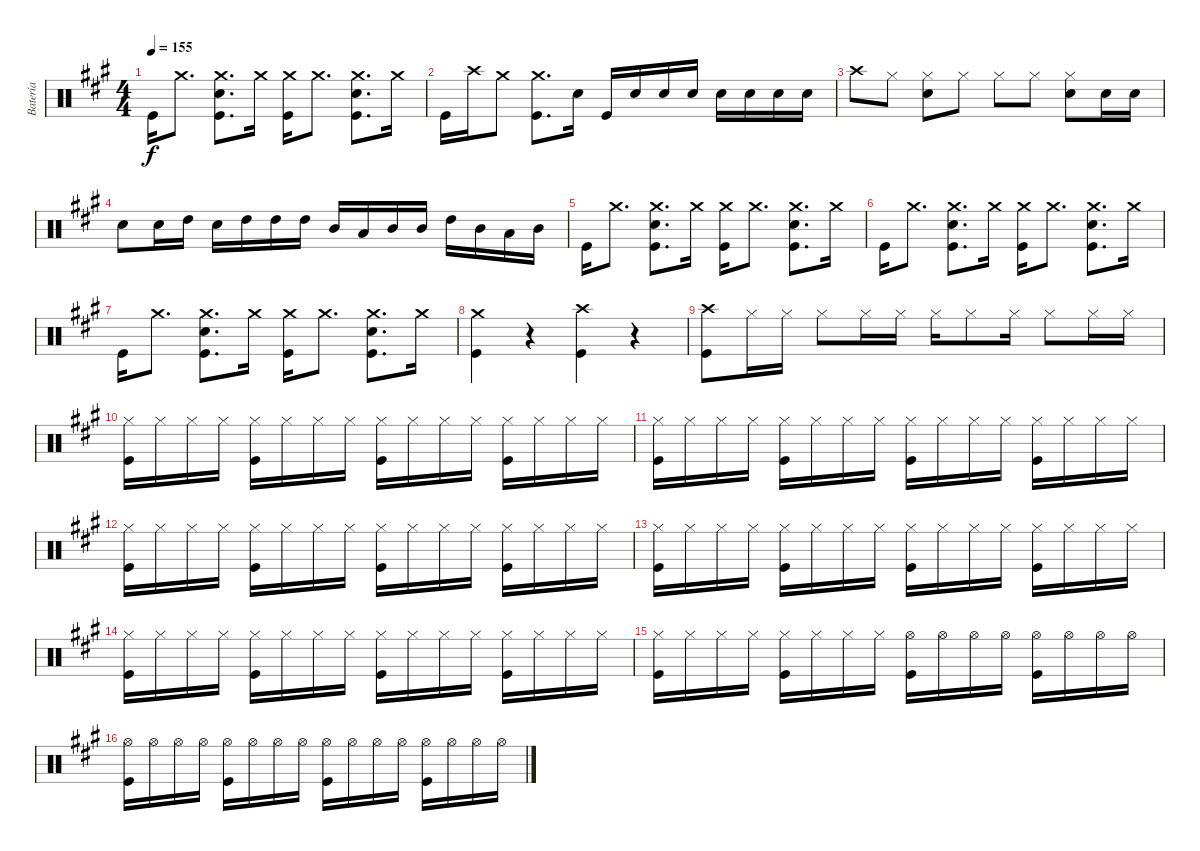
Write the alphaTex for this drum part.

\track ("Batería" "Batería") {instrument percussion}
\staff {score}
\articulation defaults
\ts (4 4)
\tempo 155
\clef neutral
\ks f#minor "Kick (hit)".16{dy f} "Crash medium (hit)".8{d}
("Snare (hit) 2" "Crash medium (hit)" "Kick (hit)").8{d} "Crash medium (hit)".16 ("Crash medium (hit)" "Kick (hit)").16 "Crash medium (hit)".8{d} ("Snare (hit) 2" "Crash medium (hit)" "Kick (hit)").8{d} "Crash medium (hit)".16 |
"Kick (hit)".16 "Crash high (hit)".16 "Crash medium (hit)".8 ("Crash medium (hit)" "Kick (hit)").8{d} "Snare (hit) 2".16 "Kick (hit)".16 "Snare (hit) 2".16 "Snare (hit) 2".16 "Snare (hit) 2".16 "Snare (hit) 2".16 "Snare (hit) 2".16 "Snare (hit) 2".16 "Snare (hit) 2".16 |
"Crash high (hit)".8 "Hi-Hat (closed)".8 ("Snare (hit) 2" "Hi-Hat (closed)").8 "Hi-Hat (closed)".8 "Hi-Hat (closed)".8 "Hi-Hat (closed)".8 ("Snare (hit) 2" "Hi-Hat (closed)").8 "Snare (hit) 2".16 "Snare (hit) 2".16 |
"Snare (hit) 2".8 "Snare (hit) 2".16 "High Tom (hit)".16 "Snare (hit) 2".16 "High Tom (hit)".16 "High Tom (hit)".16 "High Tom (hit)".16 "Mid Tom (hit)".16 "Low Tom (hit)".16 "Mid Tom (hit)".16 "Mid Tom (hit)".16 "High Tom (hit)".16 "Mid Tom (hit)".16 "Low Tom (hit)".16 "Mid Tom (hit)".16 |
"Kick (hit)".16 "Crash medium (hit)".8{d} ("Snare (hit) 2" "Crash medium (hit)" "Kick (hit)").8{d} "Crash medium (hit)".16 ("Crash medium (hit)" "Kick (hit)").16 "Crash medium (hit)".8{d} ("Snare (hit) 2" "Crash medium (hit)" "Kick (hit)").8{d} "Crash medium (hit)".16 |
"Kick (hit)".16 "Crash medium (hit)".8{d} ("Snare (hit) 2" "Crash medium (hit)" "Kick (hit)").8{d} "Crash medium (hit)".16 ("Crash medium (hit)" "Kick (hit)").16 "Crash medium (hit)".8{d} ("Snare (hit) 2" "Crash medium (hit)" "Kick (hit)").8{d} "Crash medium (hit)".16 |
"Kick (hit)".16 "Crash medium (hit)".8{d} ("Snare (hit) 2" "Crash medium (hit)" "Kick (hit)").8{d} "Crash medium (hit)".16 ("Crash medium (hit)" "Kick (hit)").16 "Crash medium (hit)".8{d} ("Snare (hit) 2" "Crash medium (hit)" "Kick (hit)").8{d} "Crash medium (hit)".16 |
("Crash medium (hit)" "Kick (hit)").4 r.4 ("Crash high (hit)" "Kick (hit)").4 r.4 |
("Crash high (hit)" "Kick (hit)").8 "Hi-Hat (closed)".16 "Hi-Hat (closed)".16 "Hi-Hat (closed)".8 "Hi-Hat (closed)".16 "Hi-Hat (closed)".16 "Hi-Hat (closed)".16 "Hi-Hat (closed)".8 "Hi-Hat (closed)".16 "Hi-Hat (closed)".8 "Hi-Hat (closed)".16 "Hi-Hat (closed)".16 |
("Hi-Hat (closed)" "Kick (hit)").16 "Hi-Hat (closed)".16 "Hi-Hat (closed)".16 "Hi-Hat (closed)".16 ("Hi-Hat (closed)" "Kick (hit)").16 "Hi-Hat (closed)".16 "Hi-Hat (closed)".16 "Hi-Hat (closed)".16 ("Hi-Hat (closed)" "Kick (hit)").16 "Hi-Hat (closed)".16 "Hi-Hat (closed)".16 "Hi-Hat (closed)".16 ("Hi-Hat (closed)" "Kick (hit)").16 "Hi-Hat (closed)".16 "Hi-Hat (closed)".16 "Hi-Hat (closed)".16 |
("Hi-Hat (closed)" "Kick (hit)").16 "Hi-Hat (closed)".16 "Hi-Hat (closed)".16 "Hi-Hat (closed)".16 ("Hi-Hat (closed)" "Kick (hit)").16 "Hi-Hat (closed)".16 "Hi-Hat (closed)".16 "Hi-Hat (closed)".16 ("Hi-Hat (closed)" "Kick (hit)").16 "Hi-Hat (closed)".16 "Hi-Hat (closed)".16 "Hi-Hat (closed)".16 ("Hi-Hat (closed)" "Kick (hit)").16 "Hi-Hat (closed)".16 "Hi-Hat (closed)".16 "Hi-Hat (closed)".16 |
("Hi-Hat (closed)" "Kick (hit)").16 "Hi-Hat (closed)".16 "Hi-Hat (closed)".16 "Hi-Hat (closed)".16 ("Hi-Hat (closed)" "Kick (hit)").16 "Hi-Hat (closed)".16 "Hi-Hat (closed)".16 "Hi-Hat (closed)".16 ("Hi-Hat (closed)" "Kick (hit)").16 "Hi-Hat (closed)".16 "Hi-Hat (closed)".16 "Hi-Hat (closed)".16 ("Hi-Hat (closed)" "Kick (hit)").16 "Hi-Hat (closed)".16 "Hi-Hat (closed)".16 "Hi-Hat (closed)".16 |
("Hi-Hat (closed)" "Kick (hit)").16 "Hi-Hat (closed)".16 "Hi-Hat (closed)".16 "Hi-Hat (closed)".16 ("Hi-Hat (closed)" "Kick (hit)").16 "Hi-Hat (closed)".16 "Hi-Hat (closed)".16 "Hi-Hat (closed)".16 ("Hi-Hat (closed)" "Kick (hit)").16 "Hi-Hat (closed)".16 "Hi-Hat (closed)".16 "Hi-Hat (closed)".16 ("Hi-Hat (closed)" "Kick (hit)").16 "Hi-Hat (closed)".16 "Hi-Hat (closed)".16 "Hi-Hat (closed)".16 |
("Hi-Hat (closed)" "Kick (hit)").16 "Hi-Hat (closed)".16 "Hi-Hat (closed)".16 "Hi-Hat (closed)".16 ("Hi-Hat (closed)" "Kick (hit)").16 "Hi-Hat (closed)".16 "Hi-Hat (closed)".16 "Hi-Hat (closed)".16 ("Hi-Hat (closed)" "Kick (hit)").16 "Hi-Hat (closed)".16 "Hi-Hat (closed)".16 "Hi-Hat (closed)".16 ("Hi-Hat (closed)" "Kick (hit)").16 "Hi-Hat (closed)".16 "Hi-Hat (closed)".16 "Hi-Hat (closed)".16 |
("Hi-Hat (closed)" "Kick (hit)").16 "Hi-Hat (closed)".16 "Hi-Hat (closed)".16 "Hi-Hat (closed)".16 ("Hi-Hat (closed)" "Kick (hit)").16 "Hi-Hat (closed)".16 "Hi-Hat (closed)".16 "Hi-Hat (closed)".16 ("Hi-Hat (open)" "Kick (hit)").16 "Hi-Hat (open)".16 "Hi-Hat (open)".16 "Hi-Hat (open)".16 ("Hi-Hat (open)" "Kick (hit)").16 "Hi-Hat (open)".16 "Hi-Hat (open)".16 "Hi-Hat (open)".16 |
("Hi-Hat (open)" "Kick (hit)").16 "Hi-Hat (open)".16 "Hi-Hat (open)".16 "Hi-Hat (open)".16 ("Hi-Hat (open)" "Kick (hit)").16 "Hi-Hat (open)".16 "Hi-Hat (open)".16 "Hi-Hat (open)".16 ("Hi-Hat (open)" "Kick (hit)").16 "Hi-Hat (open)".16 "Hi-Hat (open)".16 "Hi-Hat (open)".16 ("Hi-Hat (open)" "Kick (hit)").16 "Hi-Hat (open)".16 "Hi-Hat (open)".16 "Hi-Hat (open)".16
